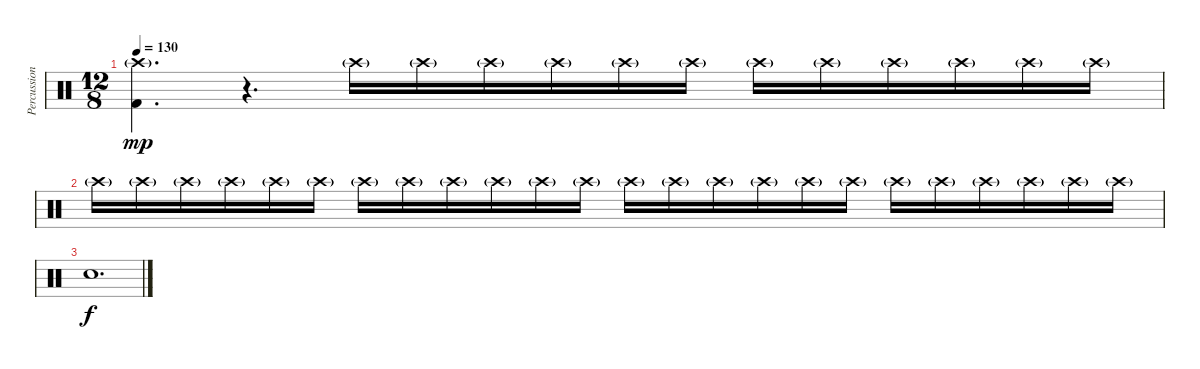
\track ("Percussion" "Percussion") {instrument percussion}
\staff {score}
\articulation defaults
\ts (12 8)
\tempo 130
\clef neutral
\ks c
("Crash high (hit)"{g} "Kick (hit) 2").4{d dy mp} r.4{d} "Crash high (hit)"{g}.16{volume 1} "Crash high (hit)"{g}.16 "Crash high (hit)"{g}.16 "Crash high (hit)"{g}.16 "Crash high (hit)"{g}.16 "Crash high (hit)"{g}.16 "Crash high (hit)"{g}.16 "Crash high (hit)"{g}.16 "Crash high (hit)"{g}.16 "Crash high (hit)"{g}.16 "Crash high (hit)"{g}.16 "Crash high (hit)"{g}.16 |
"Crash high (hit)"{g}.16 "Crash high (hit)"{g}.16 "Crash high (hit)"{g}.16 "Crash high (hit)"{g}.16 "Crash high (hit)"{g}.16 "Crash high (hit)"{g}.16 "Crash high (hit)"{g}.16 "Crash high (hit)"{g}.16 "Crash high (hit)"{g}.16 "Crash high (hit)"{g}.16 "Crash high (hit)"{g}.16 "Crash high (hit)"{g}.16 "Crash high (hit)"{g}.16 "Crash high (hit)"{g}.16 "Crash high (hit)"{g}.16 "Crash high (hit)"{g}.16 "Crash high (hit)"{g}.16 "Crash high (hit)"{g}.16 "Crash high (hit)"{g}.16 "Crash high (hit)"{g}.16 "Crash high (hit)"{g}.16 "Crash high (hit)"{g}.16 "Crash high (hit)"{g}.16 "Crash high (hit)"{g}.16 |
"Snare (hit) 2".1{d dy f}
